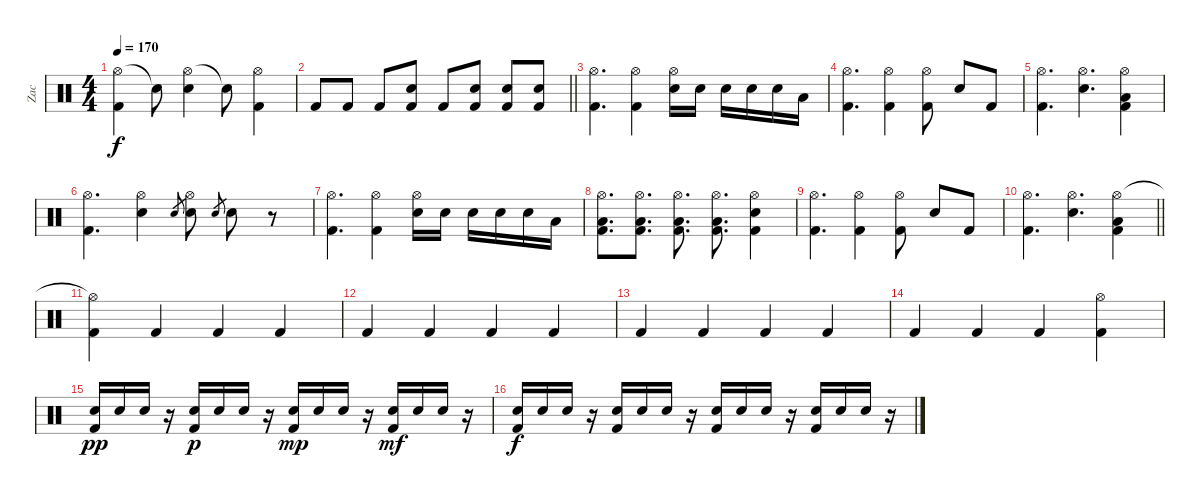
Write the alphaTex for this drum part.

\track ("Zac" "Zac") {instrument percussion}
\staff {score}
\articulation defaults
\ts (4 4)
\tempo 170
\clef neutral
\ks c
("Hi-Hat (open)" "Kick (hit) 2").4{dy f} "Snare (hit)"{t}.8 ("Hi-Hat (open)" "Electric Snare (hit)").4 "Snare (hit)"{t}.8 ("Hi-Hat (open)" "Kick (hit) 2").4 |
\barLineRight lightlight "Kick (hit) 2".8 "Kick (hit) 2".8 "Kick (hit) 2".8
("Kick (hit) 2" "Electric Snare (hit)").8 "Kick (hit) 2".8 ("Kick (hit) 2" "Electric Snare (hit)").8 ("Kick (hit) 2" "Electric Snare (hit)").8 ("Kick (hit) 2" "Electric Snare (hit)").8 |
\section ("" "")
("Hi-Hat (open)" "Kick (hit) 2").4{d} ("Hi-Hat (open)" "Kick (hit) 2").4 ("Hi-Hat (open)" "Electric Snare (hit)").16 "Electric Snare (hit)".16 "Electric Snare (hit)".16 "Electric Snare (hit)".16 "Electric Snare (hit)".16 "Low Floor Tom (hit)".16 |
("Hi-Hat (open)" "Kick (hit) 2").4{d} ("Hi-Hat (open)" "Kick (hit) 2").4 ("Hi-Hat (open)" "Kick (hit) 2").8 "Electric Snare (hit)".8 "Kick (hit) 2".8 |
("Hi-Hat (open)" "Kick (hit) 2").4{d} ("Hi-Hat (open)" "Electric Snare (hit)").4{d} ("Hi-Hat (open)" "Low Floor Tom (hit)" "Kick (hit) 2").4 |
("Hi-Hat (open)" "Kick (hit) 2").4{d} ("Hi-Hat (open)" "Electric Snare (hit)").4 "Electric Snare (hit)".8{gr} ("Hi-Hat (open)" "Electric Snare (hit)").8 "Electric Snare (hit)".8{gr} "Electric Snare (hit)".8 r.8 |
("Hi-Hat (open)" "Kick (hit) 2").4{d} ("Hi-Hat (open)" "Kick (hit) 2").4 ("Hi-Hat (open)" "Electric Snare (hit)").16 "Electric Snare (hit)".16 "Electric Snare (hit)".16 "Electric Snare (hit)".16 "Electric Snare (hit)".16 "Low Floor Tom (hit)".16 |
("Hi-Hat (open)" "Kick (hit) 2" "Low Floor Tom (hit)").8{d} ("Hi-Hat (open)" "Kick (hit) 2" "Low Floor Tom (hit)").8{d} ("Hi-Hat (open)" "Kick (hit) 2" "Low Floor Tom (hit)").8{d} ("Hi-Hat (open)" "Kick (hit) 2" "Low Floor Tom (hit)").8{d} ("Hi-Hat (open)" "Kick (hit) 2" "Electric Snare (hit)").4 |
("Hi-Hat (open)" "Kick (hit) 2").4{d} ("Hi-Hat (open)" "Kick (hit) 2").4 ("Hi-Hat (open)" "Kick (hit) 2").8 "Electric Snare (hit)".8 "Kick (hit) 2".8 |
\barLineRight lightlight
("Hi-Hat (open)" "Kick (hit) 2").4{d} ("Hi-Hat (open)" "Electric Snare (hit)").4{d} ("Hi-Hat (open)" "Low Floor Tom (hit)" "Kick (hit) 2").4 |
\section ("" "")
("Hi-Hat (open)"{t} "Kick (hit) 2").4 "Kick (hit) 2".4 "Kick (hit) 2".4 "Kick (hit) 2".4 |
"Kick (hit) 2".4 "Kick (hit) 2".4 "Kick (hit) 2".4 "Kick (hit) 2".4 |
"Kick (hit) 2".4 "Kick (hit) 2".4 "Kick (hit) 2".4 "Kick (hit) 2".4 |
"Kick (hit) 2".4 "Kick (hit) 2".4 "Kick (hit) 2".4 ("Hi-Hat (open)" "Kick (hit) 2").4 |
("Electric Snare (hit)" "Kick (hit) 2").16{dy pp} "Electric Snare (hit)".16 "Electric Snare (hit)".16 r.16 ("Electric Snare (hit)" "Kick (hit) 2").16{dy p} "Electric Snare (hit)".16 "Electric Snare (hit)".16 r.16 ("Electric Snare (hit)" "Kick (hit) 2").16{dy mp} "Electric Snare (hit)".16 "Electric Snare (hit)".16 r.16 ("Electric Snare (hit)" "Kick (hit) 2").16{dy mf} "Electric Snare (hit)".16 "Electric Snare (hit)".16 r.16 |
("Electric Snare (hit)" "Kick (hit) 2").16{dy f} "Electric Snare (hit)".16 "Electric Snare (hit)".16 r.16 ("Electric Snare (hit)" "Kick (hit) 2").16 "Electric Snare (hit)".16 "Electric Snare (hit)".16 r.16 ("Electric Snare (hit)" "Kick (hit) 2").16 "Electric Snare (hit)".16 "Electric Snare (hit)".16 r.16 ("Electric Snare (hit)" "Kick (hit) 2").16 "Electric Snare (hit)".16 "Electric Snare (hit)".16 r.16
